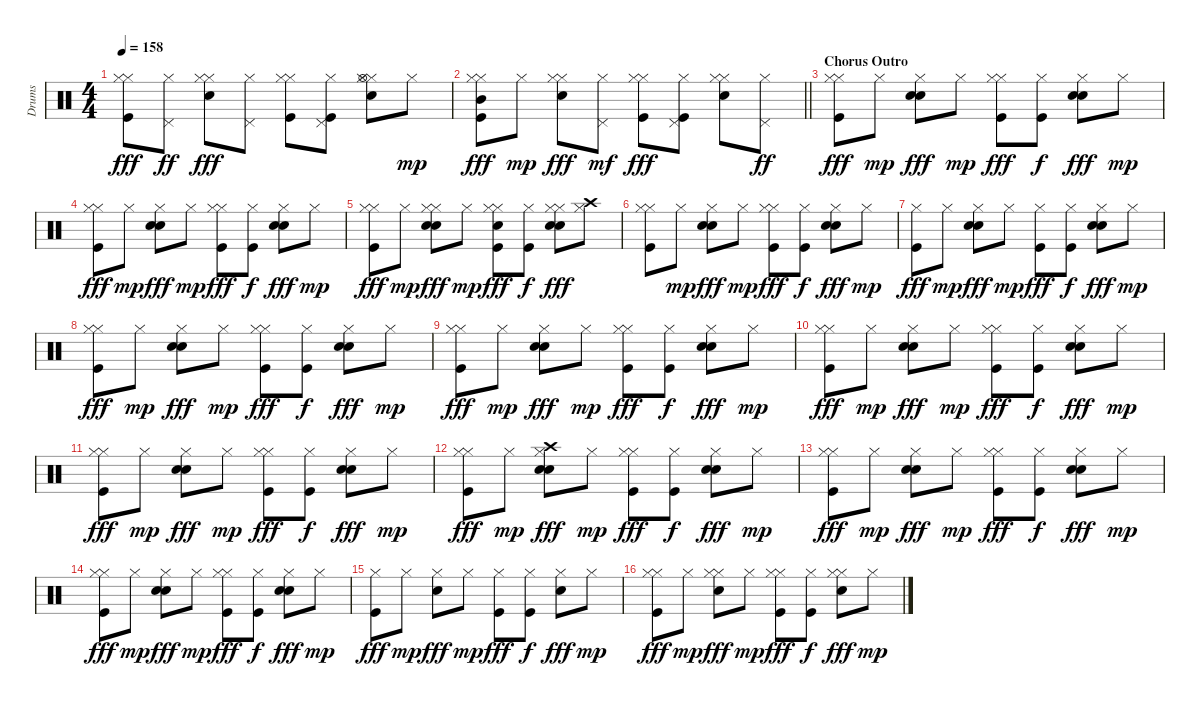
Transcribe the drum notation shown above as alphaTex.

\track ("Drums" "Drums") {instrument percussion}
\staff {score}
\articulation defaults
\ts (4 4)
\tempo 158
\clef neutral
\ks c
("Hi-Hat (closed)" "Kick (hit)" "Hi-Hat (closed)").8{dy fff} ("Hi-Hat (closed)" "Pedal Hi-Hat (hit)").8{dy ff} ("Snare (hit) 2" "Hi-Hat (closed)" "Hi-Hat (closed)").8{dy fff} ("Hi-Hat (closed)" "Pedal Hi-Hat (hit)").8 ("Hi-Hat (closed)" "Kick (hit)" "Hi-Hat (closed)").8 ("Hi-Hat (closed)" "Kick (hit)" "Pedal Hi-Hat (hit)").8 ("Snare (hit) 2" "Hi-Hat (closed)" "Hi-Hat (closed)" "Hi-Hat (open)").8 "Hi-Hat (closed)".8{dy mp} |
\barLineRight lightlight
("Hi-Hat (closed)" "Kick (hit)" "Mid Tom (hit)" "Hi-Hat (closed)").8{dy fff} "Hi-Hat (closed)".8{dy mp} ("Snare (hit) 2" "Hi-Hat (closed)" "Hi-Hat (closed)").8{dy fff} ("Hi-Hat (closed)" "Pedal Hi-Hat (hit)").8{dy mf} ("Hi-Hat (closed)" "Kick (hit)" "Hi-Hat (closed)").8{dy fff} ("Hi-Hat (closed)" "Kick (hit)" "Pedal Hi-Hat (hit)").8 ("Snare (hit) 2" "Hi-Hat (closed)" "Hi-Hat (closed)").8 ("Hi-Hat (closed)" "Pedal Hi-Hat (hit)").8{dy ff} |
\section ("" "Chorus Outro")
("Hi-Hat (closed)" "Kick (hit)" "Hi-Hat (closed)").8{dy fff} "Hi-Hat (closed)".8{dy mp} ("Snare (hit) 2" "Hi-Hat (closed)" "Electric Snare (hit)").8{dy fff} "Hi-Hat (closed)".8{dy mp} ("Hi-Hat (closed)" "Kick (hit)" "Hi-Hat (closed)").8{dy fff} ("Hi-Hat (closed)" "Kick (hit)").8{dy f} ("Snare (hit) 2" "Hi-Hat (closed)" "Electric Snare (hit)").8{dy fff} "Hi-Hat (closed)".8{dy mp} |
("Hi-Hat (closed)" "Kick (hit)" "Hi-Hat (closed)").8{dy fff} "Hi-Hat (closed)".8{dy mp} ("Snare (hit) 2" "Hi-Hat (closed)" "Electric Snare (hit)").8{dy fff} "Hi-Hat (closed)".8{dy mp} ("Hi-Hat (closed)" "Kick (hit)" "Hi-Hat (closed)").8{dy fff} ("Hi-Hat (closed)" "Kick (hit)").8{dy f} ("Snare (hit) 2" "Hi-Hat (closed)" "Electric Snare (hit)").8{dy fff} "Hi-Hat (closed)".8{dy mp} |
("Hi-Hat (closed)" "Kick (hit)" "Hi-Hat (closed)").8{dy fff} "Hi-Hat (closed)".8{dy mp} ("Snare (hit) 2" "Hi-Hat (closed)" "Hi-Hat (closed)" "Electric Snare (hit)").8{dy fff} "Hi-Hat (closed)".8{dy mp} ("Hi-Hat (closed)" "Kick (hit)" "Hi-Hat (closed)" "Electric Snare (hit)").8{dy fff} ("Hi-Hat (closed)" "Kick (hit)").8{dy f} ("Snare (hit) 2" "Hi-Hat (closed)" "Hi-Hat (closed)" "Electric Snare (hit)").8{dy fff} ("Hi-Hat (closed)" "Crash high (hit)").8 |
("Hi-Hat (closed)" "Kick (hit)" "Hi-Hat (closed)").8 "Hi-Hat (closed)".8{dy mp} ("Snare (hit) 2" "Hi-Hat (closed)" "Electric Snare (hit)").8{dy fff} "Hi-Hat (closed)".8{dy mp} ("Hi-Hat (closed)" "Kick (hit)" "Hi-Hat (closed)").8{dy fff} ("Hi-Hat (closed)" "Kick (hit)").8{dy f} ("Snare (hit) 2" "Hi-Hat (closed)" "Electric Snare (hit)").8{dy fff} "Hi-Hat (closed)".8{dy mp} |
("Hi-Hat (closed)" "Kick (hit)").8{dy fff} "Hi-Hat (closed)".8{dy mp} ("Snare (hit) 2" "Hi-Hat (closed)" "Electric Snare (hit)").8{dy fff} "Hi-Hat (closed)".8{dy mp} ("Hi-Hat (closed)" "Kick (hit)").8{dy fff} ("Hi-Hat (closed)" "Kick (hit)").8{dy f} ("Snare (hit) 2" "Hi-Hat (closed)" "Electric Snare (hit)").8{dy fff} "Hi-Hat (closed)".8{dy mp} |
("Hi-Hat (closed)" "Kick (hit)" "Hi-Hat (closed)").8{dy fff} "Hi-Hat (closed)".8{dy mp} ("Snare (hit) 2" "Hi-Hat (closed)" "Electric Snare (hit)").8{dy fff} "Hi-Hat (closed)".8{dy mp} ("Hi-Hat (closed)" "Kick (hit)" "Hi-Hat (closed)").8{dy fff} ("Hi-Hat (closed)" "Kick (hit)").8{dy f} ("Snare (hit) 2" "Hi-Hat (closed)" "Electric Snare (hit)").8{dy fff} "Hi-Hat (closed)".8{dy mp} |
("Hi-Hat (closed)" "Kick (hit)" "Hi-Hat (closed)").8{dy fff} "Hi-Hat (closed)".8{dy mp} ("Snare (hit) 2" "Hi-Hat (closed)" "Electric Snare (hit)").8{dy fff} "Hi-Hat (closed)".8{dy mp} ("Hi-Hat (closed)" "Kick (hit)" "Hi-Hat (closed)").8{dy fff} ("Hi-Hat (closed)" "Kick (hit)").8{dy f} ("Snare (hit) 2" "Hi-Hat (closed)" "Electric Snare (hit)").8{dy fff} "Hi-Hat (closed)".8{dy mp} |
("Hi-Hat (closed)" "Kick (hit)" "Hi-Hat (closed)").8{dy fff} "Hi-Hat (closed)".8{dy mp} ("Snare (hit) 2" "Hi-Hat (closed)" "Electric Snare (hit)").8{dy fff} "Hi-Hat (closed)".8{dy mp} ("Hi-Hat (closed)" "Kick (hit)" "Hi-Hat (closed)").8{dy fff} ("Hi-Hat (closed)" "Kick (hit)").8{dy f} ("Snare (hit) 2" "Hi-Hat (closed)" "Electric Snare (hit)").8{dy fff} "Hi-Hat (closed)".8{dy mp} |
("Hi-Hat (closed)" "Kick (hit)" "Hi-Hat (closed)").8{dy fff} "Hi-Hat (closed)".8{dy mp} ("Snare (hit) 2" "Hi-Hat (closed)" "Electric Snare (hit)").8{dy fff} "Hi-Hat (closed)".8{dy mp} ("Hi-Hat (closed)" "Kick (hit)" "Hi-Hat (closed)").8{dy fff} ("Hi-Hat (closed)" "Kick (hit)").8{dy f} ("Snare (hit) 2" "Hi-Hat (closed)" "Electric Snare (hit)").8{dy fff} "Hi-Hat (closed)".8{dy mp} |
("Hi-Hat (closed)" "Kick (hit)" "Hi-Hat (closed)").8{dy fff} "Hi-Hat (closed)".8{dy mp} ("Snare (hit) 2" "Hi-Hat (closed)" "Electric Snare (hit)" "Crash high (hit)").8{dy fff} "Hi-Hat (closed)".8{dy mp} ("Hi-Hat (closed)" "Kick (hit)" "Hi-Hat (closed)").8{dy fff} ("Hi-Hat (closed)" "Kick (hit)").8{dy f} ("Snare (hit) 2" "Hi-Hat (closed)" "Electric Snare (hit)").8{dy fff} "Hi-Hat (closed)".8{dy mp} |
("Hi-Hat (closed)" "Kick (hit)" "Hi-Hat (closed)").8{dy fff} "Hi-Hat (closed)".8{dy mp} ("Snare (hit) 2" "Hi-Hat (closed)" "Electric Snare (hit)").8{dy fff} "Hi-Hat (closed)".8{dy mp} ("Hi-Hat (closed)" "Kick (hit)" "Hi-Hat (closed)").8{dy fff} ("Hi-Hat (closed)" "Kick (hit)").8{dy f} ("Snare (hit) 2" "Hi-Hat (closed)" "Electric Snare (hit)").8{dy fff} "Hi-Hat (closed)".8{dy mp} |
("Hi-Hat (closed)" "Kick (hit)" "Hi-Hat (closed)").8{dy fff} "Hi-Hat (closed)".8{dy mp} ("Snare (hit) 2" "Hi-Hat (closed)" "Electric Snare (hit)").8{dy fff} "Hi-Hat (closed)".8{dy mp} ("Hi-Hat (closed)" "Kick (hit)" "Hi-Hat (closed)").8{dy fff} ("Hi-Hat (closed)" "Kick (hit)").8{dy f} ("Snare (hit) 2" "Hi-Hat (closed)" "Electric Snare (hit)").8{dy fff} "Hi-Hat (closed)".8{dy mp} |
("Hi-Hat (closed)" "Kick (hit)").8{dy fff} "Hi-Hat (closed)".8{dy mp} ("Snare (hit) 2" "Hi-Hat (closed)").8{dy fff} "Hi-Hat (closed)".8{dy mp} ("Hi-Hat (closed)" "Kick (hit)").8{dy fff} ("Hi-Hat (closed)" "Kick (hit)").8{dy f} ("Snare (hit) 2" "Hi-Hat (closed)").8{dy fff} "Hi-Hat (closed)".8{dy mp} |
("Hi-Hat (closed)" "Kick (hit)" "Hi-Hat (closed)").8{dy fff} "Hi-Hat (closed)".8{dy mp} ("Snare (hit) 2" "Hi-Hat (closed)" "Hi-Hat (closed)").8{dy fff} "Hi-Hat (closed)".8{dy mp} ("Hi-Hat (closed)" "Kick (hit)" "Hi-Hat (closed)").8{dy fff} ("Hi-Hat (closed)" "Kick (hit)").8{dy f} ("Snare (hit) 2" "Hi-Hat (closed)" "Hi-Hat (closed)").8{dy fff} "Hi-Hat (closed)".8{dy mp}
